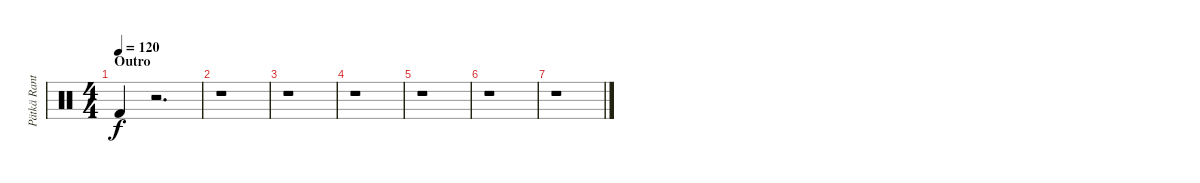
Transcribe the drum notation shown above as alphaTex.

\track ("Pätkä Rantala (Drums)" "Pätkä Rant") {instrument percussion}
\staff {score}
\articulation defaults
\ts (4 4)
\section ("" "Outro")
\tempo 120
\clef neutral
\ks c "Kick (hit) 2".4{dy f}
r.2{d} |
r.1 |
r.1 |
r.1 |
r.1 |
r.1 |
r.1
